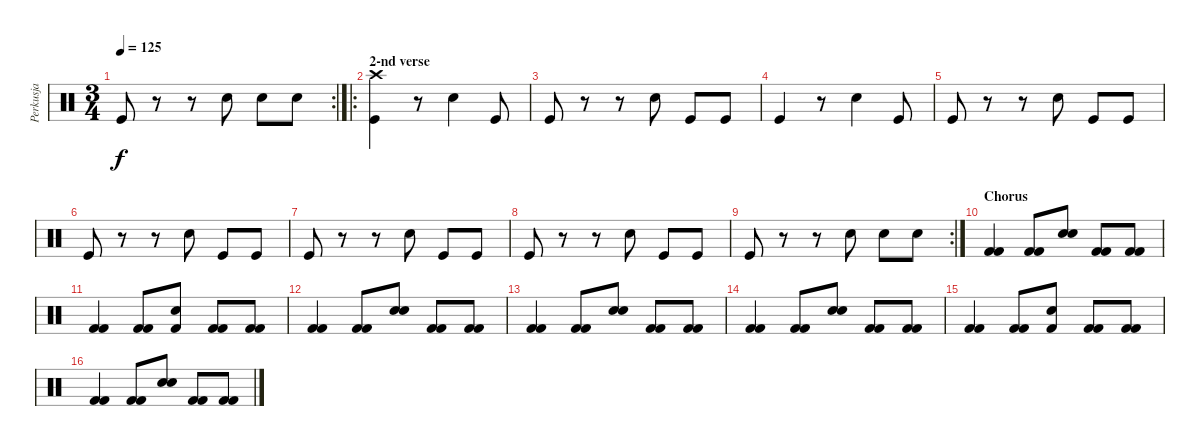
\track ("Perkusja" "Perkusja") {instrument percussion}
\staff {score}
\articulation defaults
\rc 2
\ts (3 4)
\tempo 125
\clef neutral
\ks c "Kick (hit)".8{dy f}
r.8 r.8 "Electric Snare (hit)".8 "Snare (hit) 2".8 "Snare (hit) 2".8 |
\ro
\section ("" "2-nd verse")
("Crash high (hit)" "Kick (hit)").4 r.8 "Electric Snare (hit)".4 "Kick (hit)".8 |
"Kick (hit)".8 r.8 r.8 "Electric Snare (hit)".8 "Kick (hit)".8 "Kick (hit)".8 |
"Kick (hit)".4 r.8 "Electric Snare (hit)".4 "Kick (hit)".8 |
"Kick (hit)".8 r.8 r.8 "Electric Snare (hit)".8 "Kick (hit)".8 "Kick (hit)".8 |
"Kick (hit)".8 r.8 r.8 "Electric Snare (hit)".8 "Kick (hit)".8 "Kick (hit)".8 |
"Kick (hit)".8 r.8 r.8 "Electric Snare (hit)".8 "Kick (hit)".8 "Kick (hit)".8 |
"Kick (hit)".8 r.8 r.8 "Electric Snare (hit)".8 "Kick (hit)".8 "Kick (hit)".8 |
\rc 2 "Kick (hit)".8
r.8 r.8 "Electric Snare (hit)".8 "Snare (hit) 2".8 "Snare (hit) 2".8 |
\section ("" "Chorus")
("Kick (hit) 2" "Kick (hit) 2").4 ("Kick (hit) 2" "Kick (hit) 2").8 ("Snare (hit) 2" "Snare (hit) 2").8 ("Kick (hit) 2" "Kick (hit) 2").8 ("Kick (hit) 2" "Kick (hit) 2").8 |
("Kick (hit) 2" "Kick (hit) 2").4 ("Kick (hit) 2" "Kick (hit) 2").8 ("Kick (hit) 2" "Snare (hit) 2").8 ("Kick (hit) 2" "Kick (hit) 2").8 ("Kick (hit) 2" "Kick (hit) 2").8 |
("Kick (hit) 2" "Kick (hit) 2").4 ("Kick (hit) 2" "Kick (hit) 2").8 ("Snare (hit) 2" "Snare (hit) 2").8 ("Kick (hit) 2" "Kick (hit) 2").8 ("Kick (hit) 2" "Kick (hit) 2").8 |
("Kick (hit) 2" "Kick (hit) 2").4 ("Kick (hit) 2" "Kick (hit) 2").8 ("Snare (hit) 2" "Snare (hit) 2").8 ("Kick (hit) 2" "Kick (hit) 2").8 ("Kick (hit) 2" "Kick (hit) 2").8 |
("Kick (hit) 2" "Kick (hit) 2").4 ("Kick (hit) 2" "Kick (hit) 2").8 ("Snare (hit) 2" "Snare (hit) 2").8 ("Kick (hit) 2" "Kick (hit) 2").8 ("Kick (hit) 2" "Kick (hit) 2").8 |
("Kick (hit) 2" "Kick (hit) 2").4 ("Kick (hit) 2" "Kick (hit) 2").8 ("Kick (hit) 2" "Snare (hit) 2").8 ("Kick (hit) 2" "Kick (hit) 2").8 ("Kick (hit) 2" "Kick (hit) 2").8 |
("Kick (hit) 2" "Kick (hit) 2").4 ("Kick (hit) 2" "Kick (hit) 2").8 ("Snare (hit) 2" "Snare (hit) 2").8 ("Kick (hit) 2" "Kick (hit) 2").8 ("Kick (hit) 2" "Kick (hit) 2").8
